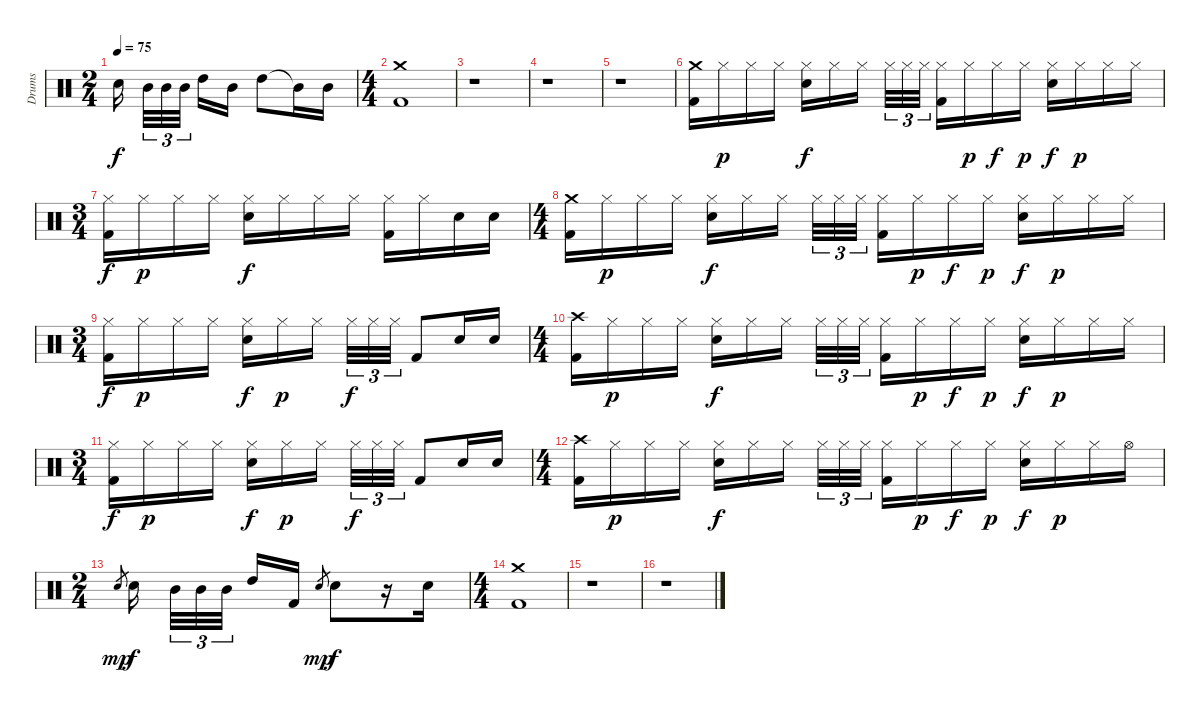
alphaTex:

\track ("Drums" "Drums") {instrument percussion}
\staff {score}
\articulation defaults
\ts (2 4)
\tempo 75
\clef neutral
\ks c "Electric Snare (hit)".16{dy f} "Mid Tom (hit)".32{tu (3 2)} "Mid Tom (hit)".32{tu (3 2)} "Mid Tom (hit)".32{tu (3 2)} "High Tom (hit)".16 "Mid Tom (hit)".16 "High Tom (hit)".8 "Mid Tom (hit)"{t}.16 "Mid Tom (hit)".16
|
\ts (4 4)
("Crash medium (hit)" "Kick (hit) 2").1 |
r.1 |
r.1 |
r.1 |
("Crash medium (hit)" "Kick (hit) 2").16 "Hi-Hat (closed)".16{dy p} "Hi-Hat (closed)".16 "Hi-Hat (closed)".16 ("Hi-Hat (closed)" "Electric Snare (hit)").16{dy f} "Hi-Hat (closed)".16 "Hi-Hat (closed)".16 "Hi-Hat (closed)".32{tu (3 2)} "Hi-Hat (closed)".32{tu (3 2)} "Hi-Hat (closed)".32{tu (3 2)} ("Hi-Hat (closed)" "Kick (hit) 2").16 "Hi-Hat (closed)".16{dy p} "Hi-Hat (closed)".16{dy f} "Hi-Hat (closed)".16{dy p} ("Hi-Hat (closed)" "Electric Snare (hit)").16{dy f} "Hi-Hat (closed)".16{dy p} "Hi-Hat (closed)".16 "Hi-Hat (closed)".16 |
\ts (3 4)
("Hi-Hat (closed)" "Kick (hit) 2").16{dy f} "Hi-Hat (closed)".16{dy p} "Hi-Hat (closed)".16 "Hi-Hat (closed)".16 ("Hi-Hat (closed)" "Electric Snare (hit)").16{dy f} "Hi-Hat (closed)".16 "Hi-Hat (closed)".16 "Hi-Hat (closed)".16 ("Hi-Hat (closed)" "Kick (hit) 2").16 "Hi-Hat (closed)".16 "Electric Snare (hit)".16 "Electric Snare (hit)".16 |
\ts (4 4)
("Crash medium (hit)" "Kick (hit) 2").16 "Hi-Hat (closed)".16{dy p} "Hi-Hat (closed)".16 "Hi-Hat (closed)".16 ("Hi-Hat (closed)" "Electric Snare (hit)").16{dy f} "Hi-Hat (closed)".16 "Hi-Hat (closed)".16 "Hi-Hat (closed)".32{tu (3 2)} "Hi-Hat (closed)".32{tu (3 2)} "Hi-Hat (closed)".32{tu (3 2)} ("Hi-Hat (closed)" "Kick (hit) 2").16 "Hi-Hat (closed)".16{dy p} "Hi-Hat (closed)".16{dy f} "Hi-Hat (closed)".16{dy p} ("Hi-Hat (closed)" "Electric Snare (hit)").16{dy f} "Hi-Hat (closed)".16{dy p} "Hi-Hat (closed)".16 "Hi-Hat (closed)".16 |
\ts (3 4)
("Hi-Hat (closed)" "Kick (hit) 2").16{dy f} "Hi-Hat (closed)".16{dy p} "Hi-Hat (closed)".16 "Hi-Hat (closed)".16 ("Hi-Hat (closed)" "Electric Snare (hit)").16{dy f} "Hi-Hat (closed)".16{dy p} "Hi-Hat (closed)".16 "Hi-Hat (closed)".32{tu (3 2) dy f} "Hi-Hat (closed)".32{tu (3 2)} "Hi-Hat (closed)".32{tu (3 2)} "Kick (hit) 2".8 "Electric Snare (hit)".16 "Electric Snare (hit)".16 |
\ts (4 4)
("Crash high (hit)" "Kick (hit) 2").16 "Hi-Hat (closed)".16{dy p} "Hi-Hat (closed)".16 "Hi-Hat (closed)".16 ("Hi-Hat (closed)" "Electric Snare (hit)").16{dy f} "Hi-Hat (closed)".16 "Hi-Hat (closed)".16 "Hi-Hat (closed)".32{tu (3 2)} "Hi-Hat (closed)".32{tu (3 2)} "Hi-Hat (closed)".32{tu (3 2)} ("Hi-Hat (closed)" "Kick (hit) 2").16 "Hi-Hat (closed)".16{dy p} "Hi-Hat (closed)".16{dy f} "Hi-Hat (closed)".16{dy p} ("Hi-Hat (closed)" "Electric Snare (hit)").16{dy f} "Hi-Hat (closed)".16{dy p} "Hi-Hat (closed)".16 "Hi-Hat (closed)".16 |
\ts (3 4)
("Hi-Hat (closed)" "Kick (hit) 2").16{dy f} "Hi-Hat (closed)".16{dy p} "Hi-Hat (closed)".16 "Hi-Hat (closed)".16 ("Hi-Hat (closed)" "Electric Snare (hit)").16{dy f} "Hi-Hat (closed)".16{dy p} "Hi-Hat (closed)".16 "Hi-Hat (closed)".32{tu (3 2) dy f} "Hi-Hat (closed)".32{tu (3 2)} "Hi-Hat (closed)".32{tu (3 2)} "Kick (hit) 2".8 "Electric Snare (hit)".16 "Electric Snare (hit)".16 |
\ts (4 4)
("Crash high (hit)" "Kick (hit) 2").16 "Hi-Hat (closed)".16{dy p} "Hi-Hat (closed)".16 "Hi-Hat (closed)".16 ("Hi-Hat (closed)" "Electric Snare (hit)").16{dy f} "Hi-Hat (closed)".16 "Hi-Hat (closed)".16 "Hi-Hat (closed)".32{tu (3 2)} "Hi-Hat (closed)".32{tu (3 2)} "Hi-Hat (closed)".32{tu (3 2)} ("Hi-Hat (closed)" "Kick (hit) 2").16 "Hi-Hat (closed)".16{dy p} "Hi-Hat (closed)".16{dy f} "Hi-Hat (closed)".16{dy p} ("Hi-Hat (closed)" "Electric Snare (hit)").16{dy f} "Hi-Hat (closed)".16{dy p} "Hi-Hat (closed)".16 "Hi-Hat (open)".16 |
\ts (2 4)
"Electric Snare (hit)".8{gr dy mp} "Electric Snare (hit)".16{dy f} "Mid Tom (hit)".32{tu (3 2)} "Mid Tom (hit)".32{tu (3 2)} "Mid Tom (hit)".32{tu (3 2)} "High Tom (hit)".16 "Kick (hit) 2".16 "Electric Snare (hit)".8{gr dy mp} "Electric Snare (hit)".8{dy f} r.16 "Electric Snare (hit)".16 |
\ts (4 4)
("Crash medium (hit)" "Kick (hit) 2").1 |
r.1 |
r.1
